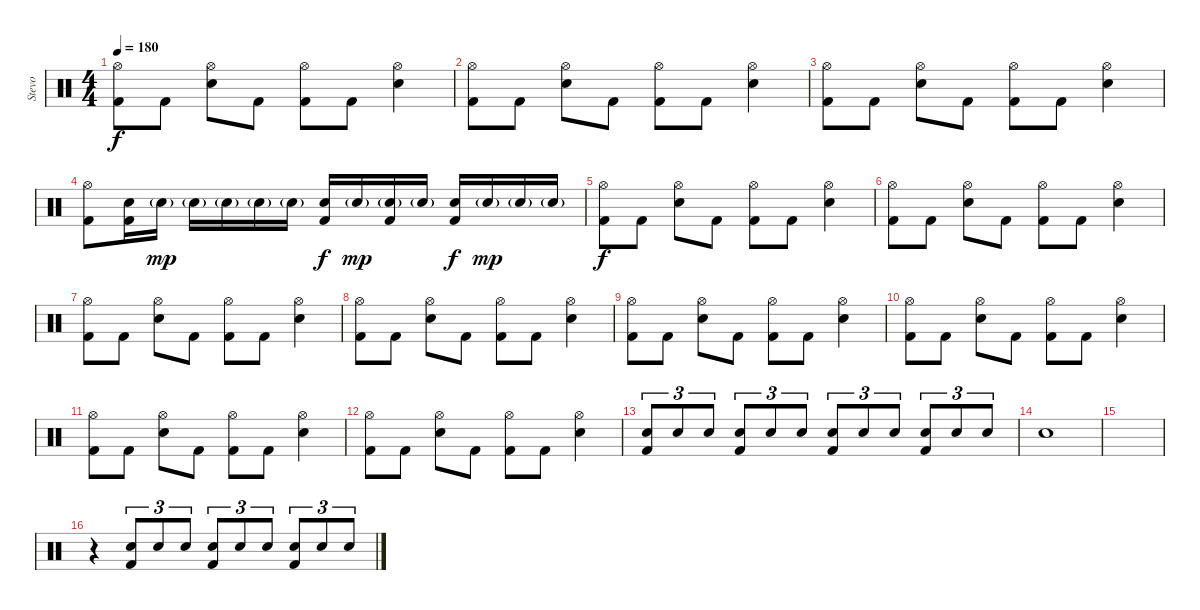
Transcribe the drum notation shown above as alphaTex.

\track ("Stevo" "Stevo") {instrument percussion}
\staff {score}
\articulation defaults
\ts (4 4)
\tempo 180
\clef neutral
\ks c
("Hi-Hat (open)" "Kick (hit) 2").8{dy f} "Kick (hit) 2".8 ("Hi-Hat (open)" "Snare (hit) 2").8 "Kick (hit) 2".8 ("Hi-Hat (open)" "Kick (hit) 2").8 "Kick (hit) 2".8 ("Hi-Hat (open)" "Snare (hit) 2").4 |
("Hi-Hat (open)" "Kick (hit) 2").8 "Kick (hit) 2".8 ("Hi-Hat (open)" "Snare (hit) 2").8 "Kick (hit) 2".8 ("Hi-Hat (open)" "Kick (hit) 2").8 "Kick (hit) 2".8 ("Hi-Hat (open)" "Snare (hit) 2").4 |
("Hi-Hat (open)" "Kick (hit) 2").8 "Kick (hit) 2".8 ("Hi-Hat (open)" "Snare (hit) 2").8 "Kick (hit) 2".8 ("Hi-Hat (open)" "Kick (hit) 2").8 "Kick (hit) 2".8 ("Hi-Hat (open)" "Snare (hit) 2").4 |
("Hi-Hat (open)" "Kick (hit) 2").8 ("Electric Snare (hit)" "Kick (hit) 2").16 "Electric Snare (hit)"{g}.16{dy mp} "Electric Snare (hit)"{g}.16 "Electric Snare (hit)"{g}.16 "Electric Snare (hit)"{g}.16 "Electric Snare (hit)"{g}.16 ("Electric Snare (hit)" "Kick (hit) 2").16{dy f} "Electric Snare (hit)"{g}.16{dy mp} ("Electric Snare (hit)"{g} "Kick (hit) 2").16 "Electric Snare (hit)"{g}.16 ("Electric Snare (hit)" "Kick (hit) 2").16{dy f} "Electric Snare (hit)"{g}.16{dy mp} "Electric Snare (hit)"{g}.16 "Electric Snare (hit)"{g}.16 |
("Hi-Hat (open)" "Kick (hit) 2").8{dy f} "Kick (hit) 2".8 ("Hi-Hat (open)" "Snare (hit) 2").8 "Kick (hit) 2".8 ("Hi-Hat (open)" "Kick (hit) 2").8 "Kick (hit) 2".8 ("Hi-Hat (open)" "Snare (hit) 2").4 |
("Hi-Hat (open)" "Kick (hit) 2").8 "Kick (hit) 2".8 ("Hi-Hat (open)" "Snare (hit) 2").8 "Kick (hit) 2".8 ("Hi-Hat (open)" "Kick (hit) 2").8 "Kick (hit) 2".8 ("Hi-Hat (open)" "Snare (hit) 2").4 |
("Hi-Hat (open)" "Kick (hit) 2").8 "Kick (hit) 2".8 ("Hi-Hat (open)" "Snare (hit) 2").8 "Kick (hit) 2".8 ("Hi-Hat (open)" "Kick (hit) 2").8 "Kick (hit) 2".8 ("Hi-Hat (open)" "Snare (hit) 2").4 |
("Hi-Hat (open)" "Kick (hit) 2").8 "Kick (hit) 2".8 ("Hi-Hat (open)" "Snare (hit) 2").8 "Kick (hit) 2".8 ("Hi-Hat (open)" "Kick (hit) 2").8 "Kick (hit) 2".8 ("Hi-Hat (open)" "Snare (hit) 2").4 |
("Hi-Hat (open)" "Kick (hit) 2").8 "Kick (hit) 2".8 ("Hi-Hat (open)" "Snare (hit) 2").8 "Kick (hit) 2".8 ("Hi-Hat (open)" "Kick (hit) 2").8 "Kick (hit) 2".8 ("Hi-Hat (open)" "Snare (hit) 2").4 |
("Hi-Hat (open)" "Kick (hit) 2").8 "Kick (hit) 2".8 ("Hi-Hat (open)" "Snare (hit) 2").8 "Kick (hit) 2".8 ("Hi-Hat (open)" "Kick (hit) 2").8 "Kick (hit) 2".8 ("Hi-Hat (open)" "Snare (hit) 2").4 |
("Hi-Hat (open)" "Kick (hit) 2").8 "Kick (hit) 2".8 ("Hi-Hat (open)" "Snare (hit) 2").8 "Kick (hit) 2".8 ("Hi-Hat (open)" "Kick (hit) 2").8 "Kick (hit) 2".8 ("Hi-Hat (open)" "Snare (hit) 2").4 |
("Hi-Hat (open)" "Kick (hit) 2").8 "Kick (hit) 2".8 ("Hi-Hat (open)" "Snare (hit) 2").8 "Kick (hit) 2".8 ("Hi-Hat (open)" "Kick (hit) 2").8 "Kick (hit) 2".8 ("Hi-Hat (open)" "Snare (hit) 2").4 |
("Snare (hit) 2" "Kick (hit) 2").8{tu (3 2)} "Snare (hit) 2".8{tu (3 2)} "Snare (hit) 2".8{tu (3 2)} ("Snare (hit) 2" "Kick (hit) 2").8{tu (3 2)} "Snare (hit) 2".8{tu (3 2)} "Snare (hit) 2".8{tu (3 2)} ("Snare (hit) 2" "Kick (hit) 2").8{tu (3 2)} "Snare (hit) 2".8{tu (3 2)} "Snare (hit) 2".8{tu (3 2)} ("Snare (hit) 2" "Kick (hit) 2").8{tu (3 2)} "Snare (hit) 2".8{tu (3 2)} "Snare (hit) 2".8{tu (3 2)} |
"Snare (hit) 2".1 |
|
r.4 ("Snare (hit) 2" "Kick (hit) 2").8{tu (3 2)} "Snare (hit) 2".8{tu (3 2)} "Snare (hit) 2".8{tu (3 2)} ("Snare (hit) 2" "Kick (hit) 2").8{tu (3 2)} "Snare (hit) 2".8{tu (3 2)} "Snare (hit) 2".8{tu (3 2)} ("Snare (hit) 2" "Kick (hit) 2").8{tu (3 2)} "Snare (hit) 2".8{tu (3 2)} "Snare (hit) 2".8{tu (3 2)}
